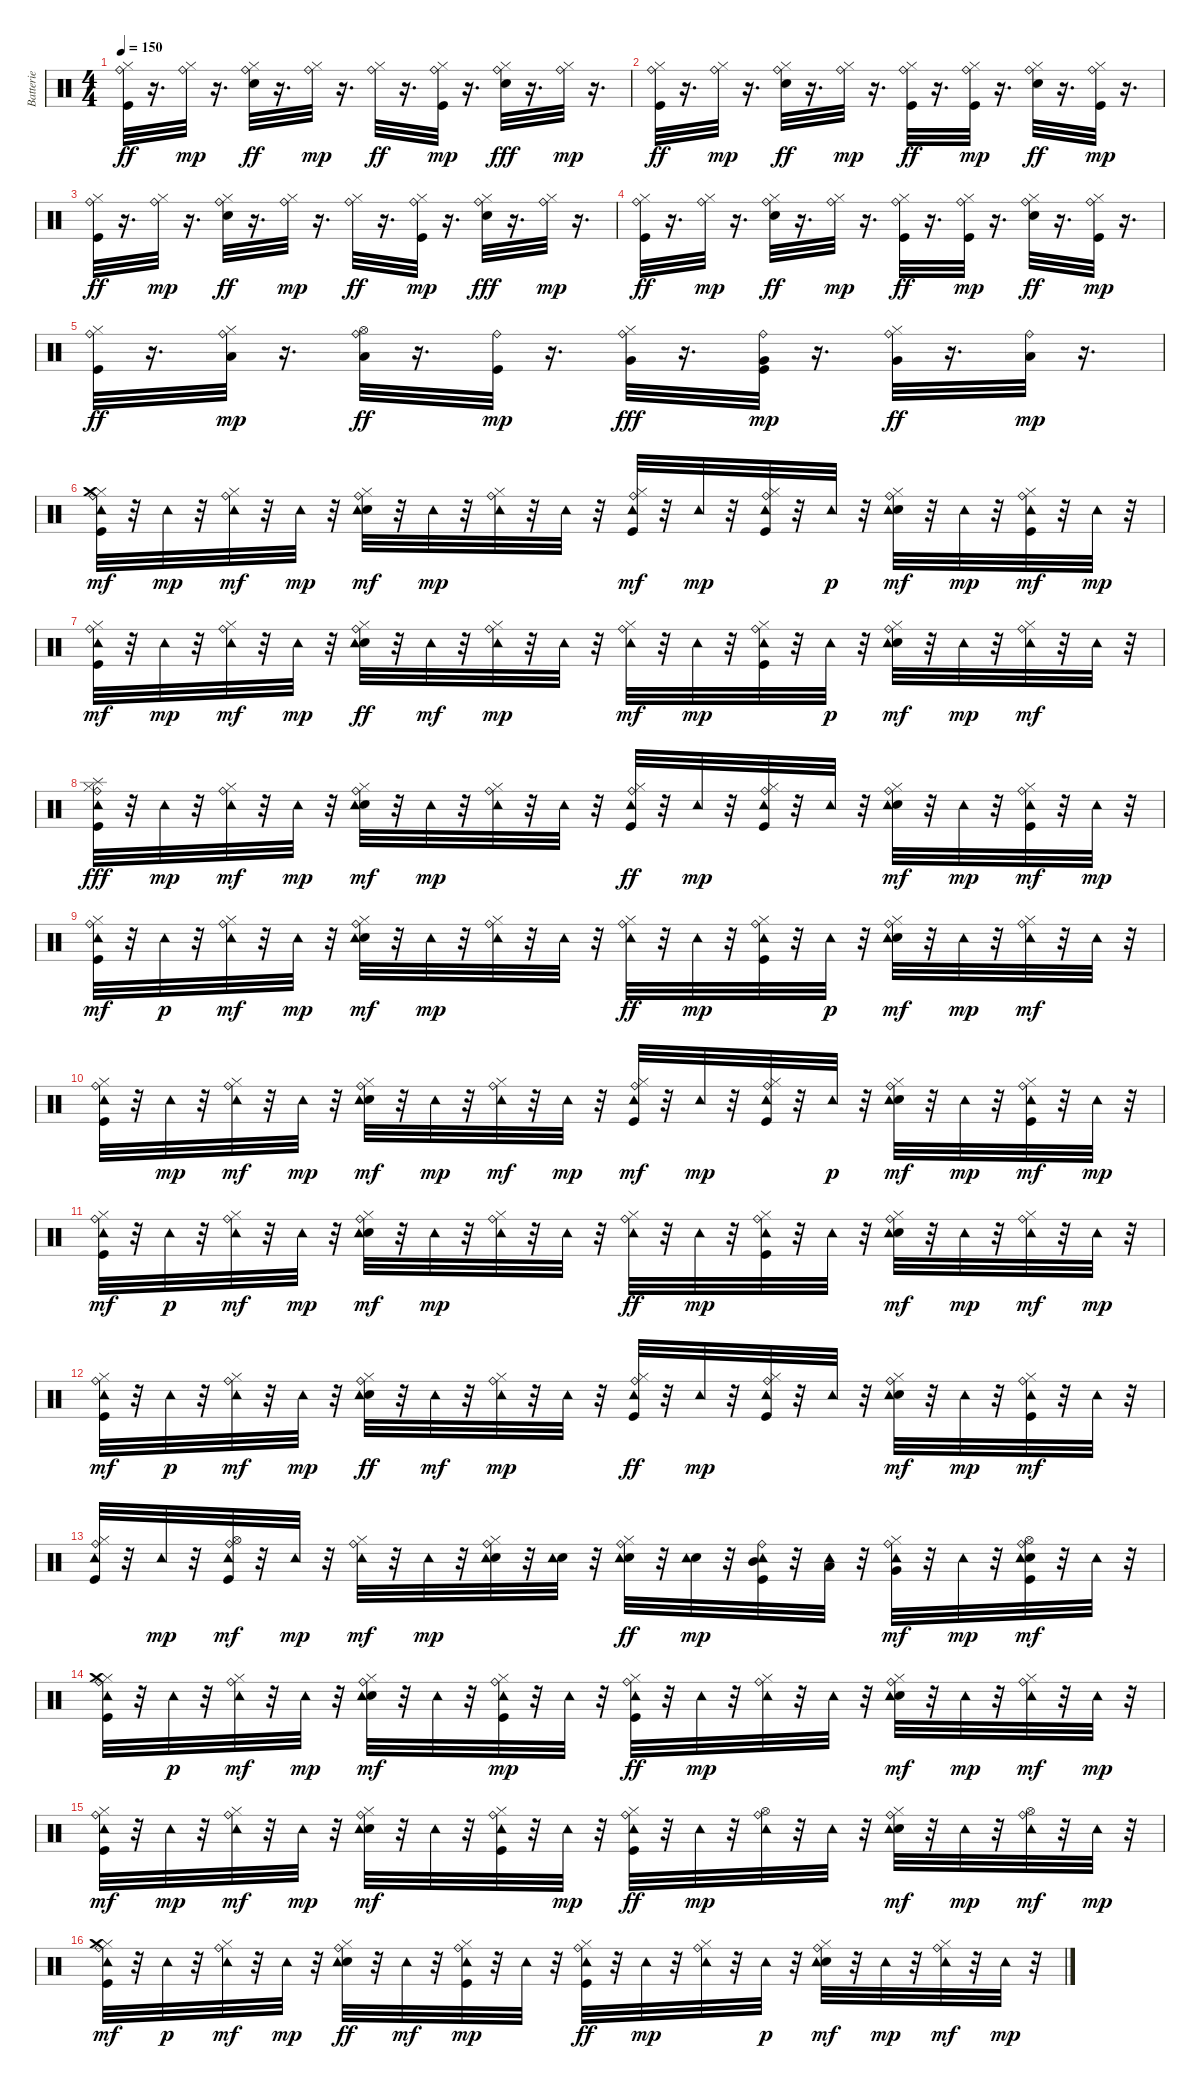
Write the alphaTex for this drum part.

\track ("Batterie" "Batterie") {instrument percussion}
\staff {score}
\articulation defaults
\ts (4 4)
\tempo 150
\clef neutral
\ks c
("Kick (hit)" "Hi-Hat (closed)" "Ride (bell)").32{dy ff} r.16{d} ("Hi-Hat (closed)" "Ride (bell)").32{dy mp} r.16{d} ("Snare (hit) 2" "Hi-Hat (closed)" "Ride (bell)").32{dy ff} r.16{d} ("Hi-Hat (closed)" "Ride (bell)").32{dy mp} r.16{d} ("Hi-Hat (closed)" "Ride (bell)").32{dy ff} r.16{d} ("Kick (hit)" "Hi-Hat (closed)" "Ride (bell)").32{dy mp} r.16{d} ("Snare (hit) 2" "Hi-Hat (closed)" "Ride (bell)").32{dy fff} r.16{d} ("Hi-Hat (closed)" "Ride (bell)").32{dy mp} r.16{d} |
("Kick (hit)" "Hi-Hat (closed)" "Ride (bell)").32{dy ff} r.16{d} ("Hi-Hat (closed)" "Ride (bell)").32{dy mp} r.16{d} ("Snare (hit) 2" "Hi-Hat (closed)" "Ride (bell)").32{dy ff} r.16{d} ("Hi-Hat (closed)" "Ride (bell)").32{dy mp} r.16{d} ("Kick (hit)" "Hi-Hat (closed)" "Ride (bell)").32{dy ff} r.16{d} ("Kick (hit)" "Hi-Hat (closed)" "Ride (bell)").32{dy mp} r.16{d} ("Snare (hit) 2" "Hi-Hat (closed)" "Ride (bell)").32{dy ff} r.16{d} ("Kick (hit)" "Hi-Hat (closed)" "Ride (bell)").32{dy mp} r.16{d} |
("Kick (hit)" "Hi-Hat (closed)" "Ride (bell)").32{dy ff} r.16{d} ("Hi-Hat (closed)" "Ride (bell)").32{dy mp} r.16{d} ("Snare (hit) 2" "Hi-Hat (closed)" "Ride (bell)").32{dy ff} r.16{d} ("Hi-Hat (closed)" "Ride (bell)").32{dy mp} r.16{d} ("Hi-Hat (closed)" "Ride (bell)").32{dy ff} r.16{d} ("Kick (hit)" "Hi-Hat (closed)" "Ride (bell)").32{dy mp} r.16{d} ("Snare (hit) 2" "Hi-Hat (closed)" "Ride (bell)").32{dy fff} r.16{d} ("Hi-Hat (closed)" "Ride (bell)").32{dy mp} r.16{d} |
("Kick (hit)" "Hi-Hat (closed)" "Ride (bell)").32{dy ff} r.16{d} ("Hi-Hat (closed)" "Ride (bell)").32{dy mp} r.16{d} ("Snare (hit) 2" "Hi-Hat (closed)" "Ride (bell)").32{dy ff} r.16{d} ("Hi-Hat (closed)" "Ride (bell)").32{dy mp} r.16{d} ("Kick (hit)" "Hi-Hat (closed)" "Ride (bell)").32{dy ff} r.16{d} ("Kick (hit)" "Hi-Hat (closed)" "Ride (bell)").32{dy mp} r.16{d} ("Snare (hit) 2" "Hi-Hat (closed)" "Ride (bell)").32{dy ff} r.16{d} ("Kick (hit)" "Hi-Hat (closed)" "Ride (bell)").32{dy mp} r.16{d} |
("Kick (hit)" "Hi-Hat (closed)" "Ride (bell)").32{dy ff} r.16{d} ("Hi-Hat (closed)" "Low Tom (hit)" "Ride (bell)").32{dy mp} r.16{d} ("Low Tom (hit)" "Hi-Hat (open)" "Ride (bell)").32{dy ff} r.16{d} ("Kick (hit)" "Ride (bell)").32{dy mp} r.16{d} ("Hi-Hat (closed)" "Very Low Tom (hit)" "Ride (bell)").32{dy fff} r.16{d} ("Kick (hit)" "Very Low Tom (hit)" "Ride (bell)").32{dy mp} r.16{d} ("Hi-Hat (closed)" "Very Low Tom (hit)" "Ride (bell)").32{dy ff} r.16{d} ("Low Floor Tom (hit)" "Ride (bell)").32{dy mp} r.16{d} |
("Kick (hit)" "Hi-Hat (closed)" "Ride (bell)" "Tambourine (hit)" "Crash medium (hit)").32{dy mf} r.32 "Tambourine (hit)".32{dy mp} r.32 ("Hi-Hat (closed)" "Ride (bell)" "Tambourine (hit)").32{dy mf} r.32 "Tambourine (hit)".32{dy mp} r.32 ("Snare (hit) 2" "Hi-Hat (closed)" "Ride (bell)" "Tambourine (hit)").32{dy mf} r.32 "Tambourine (hit)".32{dy mp} r.32 ("Hi-Hat (closed)" "Ride (bell)" "Tambourine (hit)").32 r.32 "Tambourine (hit)".32 r.32 ("Kick (hit)" "Hi-Hat (closed)" "Ride (bell)" "Tambourine (hit)").32{dy mf} r.32 "Tambourine (hit)".32{dy mp} r.32 ("Kick (hit)" "Hi-Hat (closed)" "Ride (bell)" "Tambourine (hit)").32 r.32 "Tambourine (hit)".32{dy p} r.32 ("Snare (hit) 2" "Hi-Hat (closed)" "Ride (bell)" "Tambourine (hit)").32{dy mf} r.32 "Tambourine (hit)".32{dy mp} r.32 ("Kick (hit)" "Hi-Hat (closed)" "Ride (bell)" "Tambourine (hit)").32{dy mf} r.32 "Tambourine (hit)".32{dy mp} r.32 |
("Kick (hit)" "Hi-Hat (closed)" "Ride (bell)" "Tambourine (hit)").32{dy mf} r.32 "Tambourine (hit)".32{dy mp} r.32 ("Hi-Hat (closed)" "Ride (bell)" "Tambourine (hit)").32{dy mf} r.32 "Tambourine (hit)".32{dy mp} r.32 ("Snare (hit) 2" "Hi-Hat (closed)" "Ride (bell)" "Tambourine (hit)").32{dy ff} r.32 "Tambourine (hit)".32{dy mf} r.32 ("Hi-Hat (closed)" "Ride (bell)" "Tambourine (hit)").32{dy mp} r.32 "Tambourine (hit)".32 r.32 ("Hi-Hat (closed)" "Ride (bell)" "Tambourine (hit)").32{dy mf} r.32 "Tambourine (hit)".32{dy mp} r.32 ("Kick (hit)" "Hi-Hat (closed)" "Ride (bell)" "Tambourine (hit)").32 r.32 "Tambourine (hit)".32{dy p} r.32 ("Snare (hit) 2" "Hi-Hat (closed)" "Ride (bell)" "Tambourine (hit)").32{dy mf} r.32 "Tambourine (hit)".32{dy mp} r.32 ("Hi-Hat (closed)" "Ride (bell)" "Tambourine (hit)").32{dy mf} r.32 "Tambourine (hit)".32 r.32 |
("Kick (hit)" "Hi-Hat (closed)" "Ride (bell)" "Tambourine (hit)" "Splash (hit)").32{dy fff} r.32 "Tambourine (hit)".32{dy mp} r.32 ("Hi-Hat (closed)" "Ride (bell)" "Tambourine (hit)").32{dy mf} r.32 "Tambourine (hit)".32{dy mp} r.32 ("Snare (hit) 2" "Hi-Hat (closed)" "Ride (bell)" "Tambourine (hit)").32{dy mf} r.32 "Tambourine (hit)".32{dy mp} r.32 ("Hi-Hat (closed)" "Ride (bell)" "Tambourine (hit)").32 r.32 "Tambourine (hit)".32 r.32 ("Kick (hit)" "Hi-Hat (closed)" "Ride (bell)" "Tambourine (hit)").32{dy ff} r.32 "Tambourine (hit)".32{dy mp} r.32 ("Kick (hit)" "Hi-Hat (closed)" "Ride (bell)" "Tambourine (hit)").32 r.32 "Tambourine (hit)".32 r.32 ("Snare (hit) 2" "Hi-Hat (closed)" "Ride (bell)" "Tambourine (hit)").32{dy mf} r.32 "Tambourine (hit)".32{dy mp} r.32 ("Kick (hit)" "Hi-Hat (closed)" "Ride (bell)" "Tambourine (hit)").32{dy mf} r.32 "Tambourine (hit)".32{dy mp} r.32 |
("Kick (hit)" "Hi-Hat (closed)" "Ride (bell)" "Tambourine (hit)").32{dy mf} r.32 "Tambourine (hit)".32{dy p} r.32 ("Hi-Hat (closed)" "Ride (bell)" "Tambourine (hit)").32{dy mf} r.32 "Tambourine (hit)".32{dy mp} r.32 ("Snare (hit) 2" "Hi-Hat (closed)" "Ride (bell)" "Tambourine (hit)").32{dy mf} r.32 "Tambourine (hit)".32{dy mp} r.32 ("Hi-Hat (closed)" "Ride (bell)" "Tambourine (hit)").32 r.32 "Tambourine (hit)".32 r.32 ("Hi-Hat (closed)" "Ride (bell)" "Tambourine (hit)").32{dy ff} r.32 "Tambourine (hit)".32{dy mp} r.32 ("Kick (hit)" "Hi-Hat (closed)" "Ride (bell)" "Tambourine (hit)").32 r.32 "Tambourine (hit)".32{dy p} r.32 ("Snare (hit) 2" "Hi-Hat (closed)" "Ride (bell)" "Tambourine (hit)").32{dy mf} r.32 "Tambourine (hit)".32{dy mp} r.32 ("Hi-Hat (closed)" "Ride (bell)" "Tambourine (hit)").32{dy mf} r.32 "Tambourine (hit)".32 r.32 |
("Kick (hit)" "Hi-Hat (closed)" "Ride (bell)" "Tambourine (hit)").32 r.32 "Tambourine (hit)".32{dy mp} r.32 ("Hi-Hat (closed)" "Ride (bell)" "Tambourine (hit)").32{dy mf} r.32 "Tambourine (hit)".32{dy mp} r.32 ("Snare (hit) 2" "Hi-Hat (closed)" "Ride (bell)" "Tambourine (hit)").32{dy mf} r.32 "Tambourine (hit)".32{dy mp} r.32 ("Hi-Hat (closed)" "Ride (bell)" "Tambourine (hit)").32{dy mf} r.32 "Tambourine (hit)".32{dy mp} r.32 ("Kick (hit)" "Hi-Hat (closed)" "Ride (bell)" "Tambourine (hit)").32{dy mf} r.32 "Tambourine (hit)".32{dy mp} r.32 ("Kick (hit)" "Hi-Hat (closed)" "Ride (bell)" "Tambourine (hit)").32 r.32 "Tambourine (hit)".32{dy p} r.32 ("Snare (hit) 2" "Hi-Hat (closed)" "Ride (bell)" "Tambourine (hit)").32{dy mf} r.32 "Tambourine (hit)".32{dy mp} r.32 ("Kick (hit)" "Hi-Hat (closed)" "Ride (bell)" "Tambourine (hit)").32{dy mf} r.32 "Tambourine (hit)".32{dy mp} r.32 |
("Kick (hit)" "Hi-Hat (closed)" "Ride (bell)" "Tambourine (hit)").32{dy mf} r.32 "Tambourine (hit)".32{dy p} r.32 ("Hi-Hat (closed)" "Ride (bell)" "Tambourine (hit)").32{dy mf} r.32 "Tambourine (hit)".32{dy mp} r.32 ("Snare (hit) 2" "Hi-Hat (closed)" "Ride (bell)" "Tambourine (hit)").32{dy mf} r.32 "Tambourine (hit)".32{dy mp} r.32 ("Hi-Hat (closed)" "Ride (bell)" "Tambourine (hit)").32 r.32 "Tambourine (hit)".32 r.32 ("Hi-Hat (closed)" "Ride (bell)" "Tambourine (hit)").32{dy ff} r.32 "Tambourine (hit)".32{dy mp} r.32 ("Kick (hit)" "Hi-Hat (closed)" "Ride (bell)" "Tambourine (hit)").32 r.32 "Tambourine (hit)".32 r.32 ("Snare (hit) 2" "Hi-Hat (closed)" "Ride (bell)" "Tambourine (hit)").32{dy mf} r.32 "Tambourine (hit)".32{dy mp} r.32 ("Hi-Hat (closed)" "Ride (bell)" "Tambourine (hit)").32{dy mf} r.32 "Tambourine (hit)".32{dy mp} r.32 |
("Kick (hit)" "Hi-Hat (closed)" "Ride (bell)" "Tambourine (hit)").32{dy mf} r.32 "Tambourine (hit)".32{dy p} r.32 ("Hi-Hat (closed)" "Ride (bell)" "Tambourine (hit)").32{dy mf} r.32 "Tambourine (hit)".32{dy mp} r.32 ("Snare (hit) 2" "Hi-Hat (closed)" "Ride (bell)" "Tambourine (hit)").32{dy ff} r.32 "Tambourine (hit)".32{dy mf} r.32 ("Hi-Hat (closed)" "Ride (bell)" "Tambourine (hit)").32{dy mp} r.32 "Tambourine (hit)".32 r.32 ("Kick (hit)" "Hi-Hat (closed)" "Ride (bell)" "Tambourine (hit)").32{dy ff} r.32 "Tambourine (hit)".32{dy mp} r.32 ("Kick (hit)" "Hi-Hat (closed)" "Ride (bell)" "Tambourine (hit)").32 r.32 "Tambourine (hit)".32 r.32 ("Snare (hit) 2" "Hi-Hat (closed)" "Ride (bell)" "Tambourine (hit)").32{dy mf} r.32 "Tambourine (hit)".32{dy mp} r.32 ("Kick (hit)" "Hi-Hat (closed)" "Ride (bell)" "Tambourine (hit)").32{dy mf} r.32 "Tambourine (hit)".32 r.32 |
("Kick (hit)" "Hi-Hat (closed)" "Ride (bell)" "Tambourine (hit)").32 r.32 "Tambourine (hit)".32{dy mp} r.32 ("Kick (hit)" "Hi-Hat (open)" "Ride (bell)" "Tambourine (hit)").32{dy mf} r.32 "Tambourine (hit)".32{dy mp} r.32 ("Hi-Hat (closed)" "Ride (bell)" "Tambourine (hit)").32{dy mf} r.32 "Tambourine (hit)".32{dy mp} r.32 ("Snare (hit) 2" "Hi-Hat (closed)" "Ride (bell)" "Tambourine (hit)").32 r.32 ("Snare (hit) 2" "Tambourine (hit)").32 r.32 ("Snare (hit) 2" "Hi-Hat (closed)" "Ride (bell)" "Tambourine (hit)").32{dy ff} r.32 ("Snare (hit) 2" "Tambourine (hit)").32{dy mp} r.32 ("Kick (hit)" "Mid Tom (hit)" "Ride (bell)" "Tambourine (hit)").32 r.32 ("Low Tom (hit)" "Tambourine (hit)").32 r.32 ("Hi-Hat (closed)" "Very Low Tom (hit)" "Ride (bell)" "Tambourine (hit)").32{dy mf} r.32 "Tambourine (hit)".32{dy mp} r.32 ("Kick (hit)" "Snare (hit) 2" "Hi-Hat (open)" "Ride (bell)" "Tambourine (hit)").32{dy mf} r.32 "Tambourine (hit)".32 r.32 |
("Kick (hit)" "Hi-Hat (closed)" "Ride (bell)" "Tambourine (hit)" "Crash medium (hit)").32 r.32 "Tambourine (hit)".32{dy p} r.32 ("Hi-Hat (closed)" "Ride (bell)" "Tambourine (hit)").32{dy mf} r.32 "Tambourine (hit)".32{dy mp} r.32 ("Snare (hit) 2" "Hi-Hat (closed)" "Ride (bell)" "Tambourine (hit)").32{dy mf} r.32 "Tambourine (hit)".32 r.32 ("Kick (hit)" "Hi-Hat (closed)" "Ride (bell)" "Tambourine (hit)").32{dy mp} r.32 "Tambourine (hit)".32 r.32 ("Kick (hit)" "Hi-Hat (closed)" "Ride (bell)" "Tambourine (hit)").32{dy ff} r.32 "Tambourine (hit)".32{dy mp} r.32 ("Hi-Hat (closed)" "Ride (bell)" "Tambourine (hit)").32 r.32 "Tambourine (hit)".32 r.32 ("Snare (hit) 2" "Hi-Hat (closed)" "Ride (bell)" "Tambourine (hit)").32{dy mf} r.32 "Tambourine (hit)".32{dy mp} r.32 ("Hi-Hat (closed)" "Ride (bell)" "Tambourine (hit)").32{dy mf} r.32 "Tambourine (hit)".32{dy mp} r.32 |
("Kick (hit)" "Hi-Hat (closed)" "Ride (bell)" "Tambourine (hit)").32{dy mf} r.32 "Tambourine (hit)".32{dy mp} r.32 ("Hi-Hat (closed)" "Ride (bell)" "Tambourine (hit)").32{dy mf} r.32 "Tambourine (hit)".32{dy mp} r.32 ("Snare (hit) 2" "Hi-Hat (closed)" "Ride (bell)" "Tambourine (hit)").32{dy mf} r.32 "Tambourine (hit)".32 r.32 ("Kick (hit)" "Hi-Hat (closed)" "Ride (bell)" "Tambourine (hit)").32 r.32 "Tambourine (hit)".32{dy mp} r.32 ("Kick (hit)" "Hi-Hat (closed)" "Ride (bell)" "Tambourine (hit)").32{dy ff} r.32 "Tambourine (hit)".32{dy mp} r.32 ("Hi-Hat (open)" "Ride (bell)" "Tambourine (hit)").32 r.32 "Tambourine (hit)".32 r.32 ("Snare (hit) 2" "Hi-Hat (closed)" "Ride (bell)" "Tambourine (hit)").32{dy mf} r.32 "Tambourine (hit)".32{dy mp} r.32 ("Hi-Hat (open)" "Ride (bell)" "Tambourine (hit)").32{dy mf} r.32 "Tambourine (hit)".32{dy mp} r.32 |
("Kick (hit)" "Hi-Hat (closed)" "Ride (bell)" "Tambourine (hit)" "Crash medium (hit)").32{dy mf} r.32 "Tambourine (hit)".32{dy p} r.32 ("Hi-Hat (closed)" "Ride (bell)" "Tambourine (hit)").32{dy mf} r.32 "Tambourine (hit)".32{dy mp} r.32 ("Snare (hit) 2" "Hi-Hat (closed)" "Ride (bell)" "Tambourine (hit)").32{dy ff} r.32 "Tambourine (hit)".32{dy mf} r.32 ("Kick (hit)" "Hi-Hat (closed)" "Ride (bell)" "Tambourine (hit)").32{dy mp} r.32 "Tambourine (hit)".32 r.32 ("Kick (hit)" "Hi-Hat (closed)" "Ride (bell)" "Tambourine (hit)").32{dy ff} r.32 "Tambourine (hit)".32{dy mp} r.32 ("Hi-Hat (closed)" "Ride (bell)" "Tambourine (hit)").32 r.32 "Tambourine (hit)".32{dy p} r.32 ("Snare (hit) 2" "Hi-Hat (closed)" "Ride (bell)" "Tambourine (hit)").32{dy mf} r.32 "Tambourine (hit)".32{dy mp} r.32 ("Hi-Hat (closed)" "Ride (bell)" "Tambourine (hit)").32{dy mf} r.32 "Tambourine (hit)".32{dy mp} r.32
